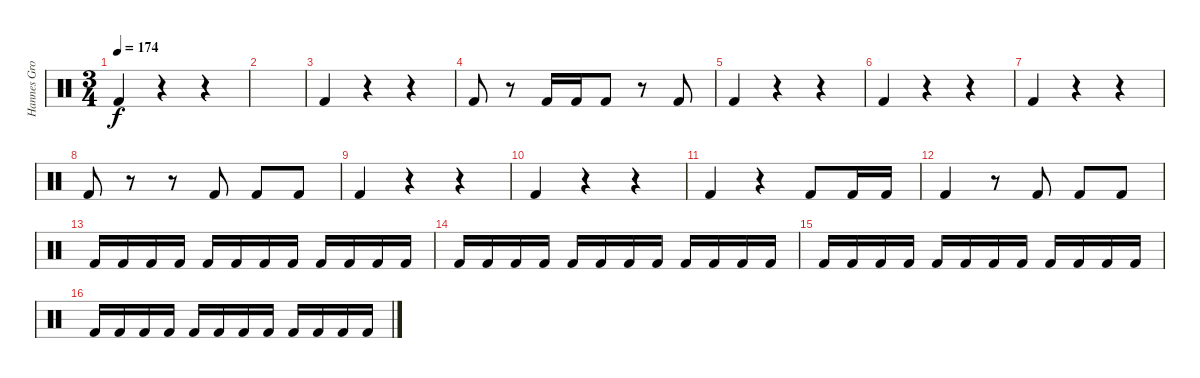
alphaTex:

\track ("Hannes Grossmann" "Hannes Gro") {instrument percussion}
\staff {score}
\articulation defaults
\ts (3 4)
\tempo 174
\clef neutral
\ks c "Kick (hit) 2".4{dy f}
r.4 r.4 |
|
"Kick (hit) 2".4 r.4 r.4 |
"Kick (hit) 2".8 r.8 "Kick (hit) 2".16 "Kick (hit) 2".16 "Kick (hit) 2".8 r.8 "Kick (hit) 2".8 |
"Kick (hit) 2".4 r.4 r.4 |
"Kick (hit) 2".4 r.4 r.4 |
"Kick (hit) 2".4 r.4 r.4 |
"Kick (hit) 2".8 r.8 r.8 "Kick (hit) 2".8 "Kick (hit) 2".8 "Kick (hit) 2".8 |
"Kick (hit) 2".4 r.4 r.4 |
"Kick (hit) 2".4 r.4 r.4 |
"Kick (hit) 2".4 r.4 "Kick (hit) 2".8 "Kick (hit) 2".16 "Kick (hit) 2".16 |
"Kick (hit) 2".4 r.8 "Kick (hit) 2".8 "Kick (hit) 2".8 "Kick (hit) 2".8 |
"Kick (hit) 2".16 "Kick (hit) 2".16 "Kick (hit) 2".16 "Kick (hit) 2".16 "Kick (hit) 2".16 "Kick (hit) 2".16 "Kick (hit) 2".16 "Kick (hit) 2".16 "Kick (hit) 2".16 "Kick (hit) 2".16 "Kick (hit) 2".16 "Kick (hit) 2".16 |
"Kick (hit) 2".16 "Kick (hit) 2".16 "Kick (hit) 2".16 "Kick (hit) 2".16 "Kick (hit) 2".16 "Kick (hit) 2".16 "Kick (hit) 2".16 "Kick (hit) 2".16 "Kick (hit) 2".16 "Kick (hit) 2".16 "Kick (hit) 2".16 "Kick (hit) 2".16 |
"Kick (hit) 2".16 "Kick (hit) 2".16 "Kick (hit) 2".16 "Kick (hit) 2".16 "Kick (hit) 2".16 "Kick (hit) 2".16 "Kick (hit) 2".16 "Kick (hit) 2".16 "Kick (hit) 2".16 "Kick (hit) 2".16 "Kick (hit) 2".16 "Kick (hit) 2".16 |
"Kick (hit) 2".16 "Kick (hit) 2".16 "Kick (hit) 2".16 "Kick (hit) 2".16 "Kick (hit) 2".16 "Kick (hit) 2".16 "Kick (hit) 2".16 "Kick (hit) 2".16 "Kick (hit) 2".16 "Kick (hit) 2".16 "Kick (hit) 2".16 "Kick (hit) 2".16
